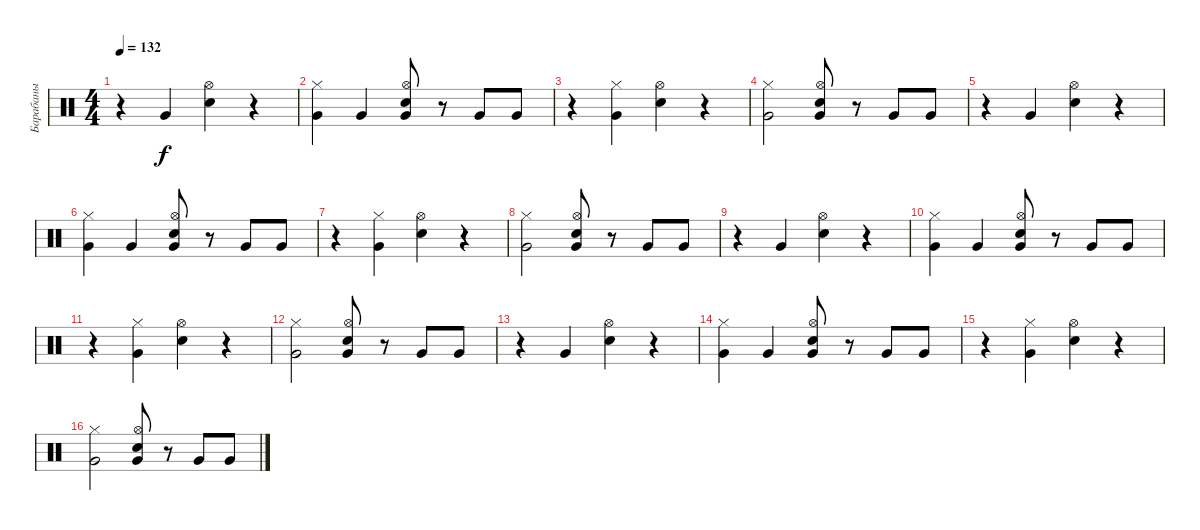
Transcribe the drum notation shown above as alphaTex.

\track ("Барабаны" "Барабаны") {instrument percussion}
\staff {score}
\articulation defaults
\ts (4 4)
\tempo 132
\clef neutral
\ks c
r.4{dy f} "Very Low Tom (hit)".4 ("Snare (hit) 2" "Hi-Hat (open)").4 r.4 |
("Hi-Hat (closed)" "Very Low Tom (hit)").4 "Very Low Tom (hit)".4 ("Electric Snare (hit)" "Hi-Hat (open)" "Very Low Tom (hit)").8 r.8 "Very Low Tom (hit)".8 "Very Low Tom (hit)".8 |
r.4 ("Very Low Tom (hit)" "Hi-Hat (closed)").4 ("Snare (hit) 2" "Hi-Hat (open)").4 r.4 |
("Hi-Hat (closed)" "Very Low Tom (hit)").2 ("Electric Snare (hit)" "Hi-Hat (open)" "Very Low Tom (hit)").8 r.8 "Very Low Tom (hit)".8 "Very Low Tom (hit)".8 |
r.4 "Very Low Tom (hit)".4 ("Snare (hit) 2" "Hi-Hat (open)").4 r.4 |
("Hi-Hat (closed)" "Very Low Tom (hit)").4 "Very Low Tom (hit)".4 ("Electric Snare (hit)" "Hi-Hat (open)" "Very Low Tom (hit)").8 r.8 "Very Low Tom (hit)".8 "Very Low Tom (hit)".8 |
r.4 ("Very Low Tom (hit)" "Hi-Hat (closed)").4 ("Snare (hit) 2" "Hi-Hat (open)").4 r.4 |
("Hi-Hat (closed)" "Very Low Tom (hit)").2 ("Electric Snare (hit)" "Hi-Hat (open)" "Very Low Tom (hit)").8 r.8 "Very Low Tom (hit)".8 "Very Low Tom (hit)".8 |
r.4 "Very Low Tom (hit)".4 ("Snare (hit) 2" "Hi-Hat (open)").4 r.4 |
("Hi-Hat (closed)" "Very Low Tom (hit)").4 "Very Low Tom (hit)".4 ("Electric Snare (hit)" "Hi-Hat (open)" "Very Low Tom (hit)").8 r.8 "Very Low Tom (hit)".8 "Very Low Tom (hit)".8 |
r.4 ("Very Low Tom (hit)" "Hi-Hat (closed)").4 ("Snare (hit) 2" "Hi-Hat (open)").4 r.4 |
("Hi-Hat (closed)" "Very Low Tom (hit)").2 ("Electric Snare (hit)" "Hi-Hat (open)" "Very Low Tom (hit)").8 r.8 "Very Low Tom (hit)".8 "Very Low Tom (hit)".8 |
r.4 "Very Low Tom (hit)".4 ("Snare (hit) 2" "Hi-Hat (open)").4 r.4 |
("Hi-Hat (closed)" "Very Low Tom (hit)").4 "Very Low Tom (hit)".4 ("Electric Snare (hit)" "Hi-Hat (open)" "Very Low Tom (hit)").8 r.8 "Very Low Tom (hit)".8 "Very Low Tom (hit)".8 |
r.4 ("Very Low Tom (hit)" "Hi-Hat (closed)").4 ("Snare (hit) 2" "Hi-Hat (open)").4 r.4 |
("Hi-Hat (closed)" "Very Low Tom (hit)").2 ("Electric Snare (hit)" "Hi-Hat (open)" "Very Low Tom (hit)").8 r.8 "Very Low Tom (hit)".8 "Very Low Tom (hit)".8
